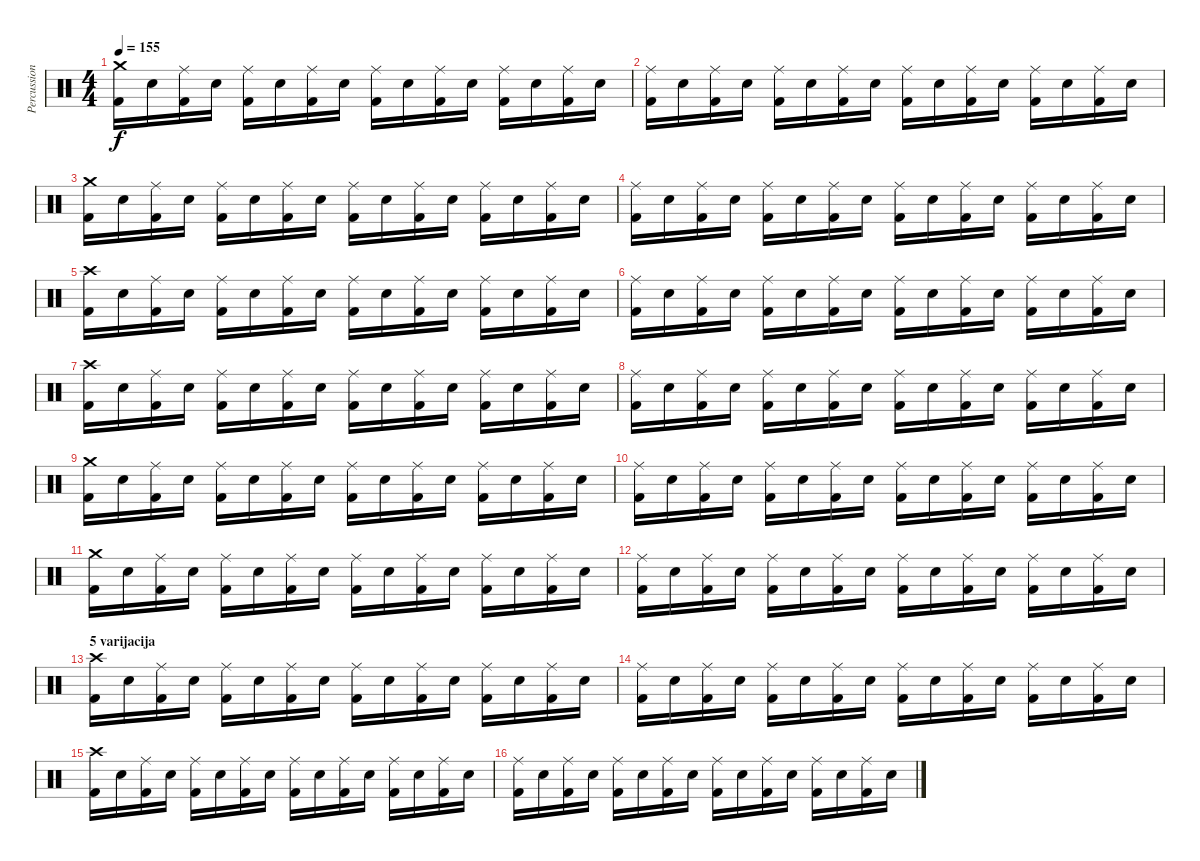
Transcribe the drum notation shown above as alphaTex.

\track ("Percussion" "Percussion") {instrument percussion}
\staff {score}
\articulation defaults
\ts (4 4)
\tempo 155
\clef neutral
\ks c
("Crash medium (hit)" "Kick (hit) 2").16{dy f} "Snare (hit) 2".16 ("Ride (middle)" "Kick (hit) 2").16 "Snare (hit) 2".16 ("Ride (middle)" "Kick (hit) 2").16 "Snare (hit) 2".16 ("Ride (middle)" "Kick (hit) 2").16 "Snare (hit) 2".16 ("Ride (middle)" "Kick (hit) 2").16 "Snare (hit) 2".16 ("Ride (middle)" "Kick (hit) 2").16 "Snare (hit) 2".16 ("Ride (middle)" "Kick (hit) 2").16 "Snare (hit) 2".16 ("Ride (middle)" "Kick (hit) 2").16 "Snare (hit) 2".16 |
("Ride (middle)" "Kick (hit) 2").16 "Snare (hit) 2".16 ("Ride (middle)" "Kick (hit) 2").16 "Snare (hit) 2".16 ("Ride (middle)" "Kick (hit) 2").16 "Snare (hit) 2".16 ("Ride (middle)" "Kick (hit) 2").16 "Snare (hit) 2".16 ("Ride (middle)" "Kick (hit) 2").16 "Snare (hit) 2".16 ("Ride (middle)" "Kick (hit) 2").16 "Snare (hit) 2".16 ("Ride (middle)" "Kick (hit) 2").16 "Snare (hit) 2".16 ("Ride (middle)" "Kick (hit) 2").16 "Snare (hit) 2".16 |
("Crash medium (hit)" "Kick (hit) 2").16 "Snare (hit) 2".16 ("Ride (middle)" "Kick (hit) 2").16 "Snare (hit) 2".16 ("Ride (middle)" "Kick (hit) 2").16 "Snare (hit) 2".16 ("Ride (middle)" "Kick (hit) 2").16 "Snare (hit) 2".16 ("Ride (middle)" "Kick (hit) 2").16 "Snare (hit) 2".16 ("Ride (middle)" "Kick (hit) 2").16 "Snare (hit) 2".16 ("Ride (middle)" "Kick (hit) 2").16 "Snare (hit) 2".16 ("Ride (middle)" "Kick (hit) 2").16 "Snare (hit) 2".16 |
("Ride (middle)" "Kick (hit) 2").16 "Snare (hit) 2".16 ("Ride (middle)" "Kick (hit) 2").16 "Snare (hit) 2".16 ("Ride (middle)" "Kick (hit) 2").16 "Snare (hit) 2".16 ("Ride (middle)" "Kick (hit) 2").16 "Snare (hit) 2".16 ("Ride (middle)" "Kick (hit) 2").16 "Snare (hit) 2".16 ("Ride (middle)" "Kick (hit) 2").16 "Snare (hit) 2".16 ("Ride (middle)" "Kick (hit) 2").16 "Snare (hit) 2".16 ("Ride (middle)" "Kick (hit) 2").16 "Snare (hit) 2".16 |
("Crash high (hit)" "Kick (hit) 2").16 "Snare (hit) 2".16 ("Ride (middle)" "Kick (hit) 2").16 "Snare (hit) 2".16 ("Ride (middle)" "Kick (hit) 2").16 "Snare (hit) 2".16 ("Ride (middle)" "Kick (hit) 2").16 "Snare (hit) 2".16 ("Ride (middle)" "Kick (hit) 2").16 "Snare (hit) 2".16 ("Ride (middle)" "Kick (hit) 2").16 "Snare (hit) 2".16 ("Ride (middle)" "Kick (hit) 2").16 "Snare (hit) 2".16 ("Ride (middle)" "Kick (hit) 2").16 "Snare (hit) 2".16 |
("Ride (middle)" "Kick (hit) 2").16 "Snare (hit) 2".16 ("Ride (middle)" "Kick (hit) 2").16 "Snare (hit) 2".16 ("Ride (middle)" "Kick (hit) 2").16 "Snare (hit) 2".16 ("Ride (middle)" "Kick (hit) 2").16 "Snare (hit) 2".16 ("Ride (middle)" "Kick (hit) 2").16 "Snare (hit) 2".16 ("Ride (middle)" "Kick (hit) 2").16 "Snare (hit) 2".16 ("Ride (middle)" "Kick (hit) 2").16 "Snare (hit) 2".16 ("Ride (middle)" "Kick (hit) 2").16 "Snare (hit) 2".16 |
("Crash high (hit)" "Kick (hit) 2").16 "Snare (hit) 2".16 ("Ride (middle)" "Kick (hit) 2").16 "Snare (hit) 2".16 ("Ride (middle)" "Kick (hit) 2").16 "Snare (hit) 2".16 ("Ride (middle)" "Kick (hit) 2").16 "Snare (hit) 2".16 ("Ride (middle)" "Kick (hit) 2").16 "Snare (hit) 2".16 ("Ride (middle)" "Kick (hit) 2").16 "Snare (hit) 2".16 ("Ride (middle)" "Kick (hit) 2").16 "Snare (hit) 2".16 ("Ride (middle)" "Kick (hit) 2").16 "Snare (hit) 2".16 |
("Ride (middle)" "Kick (hit) 2").16 "Snare (hit) 2".16 ("Ride (middle)" "Kick (hit) 2").16 "Snare (hit) 2".16 ("Ride (middle)" "Kick (hit) 2").16 "Snare (hit) 2".16 ("Ride (middle)" "Kick (hit) 2").16 "Snare (hit) 2".16 ("Ride (middle)" "Kick (hit) 2").16 "Snare (hit) 2".16 ("Ride (middle)" "Kick (hit) 2").16 "Snare (hit) 2".16 ("Ride (middle)" "Kick (hit) 2").16 "Snare (hit) 2".16 ("Ride (middle)" "Kick (hit) 2").16 "Snare (hit) 2".16 |
("Crash medium (hit)" "Kick (hit) 2").16 "Snare (hit) 2".16 ("Ride (middle)" "Kick (hit) 2").16 "Snare (hit) 2".16 ("Ride (middle)" "Kick (hit) 2").16 "Snare (hit) 2".16 ("Ride (middle)" "Kick (hit) 2").16 "Snare (hit) 2".16 ("Ride (middle)" "Kick (hit) 2").16 "Snare (hit) 2".16 ("Ride (middle)" "Kick (hit) 2").16 "Snare (hit) 2".16 ("Ride (middle)" "Kick (hit) 2").16 "Snare (hit) 2".16 ("Ride (middle)" "Kick (hit) 2").16 "Snare (hit) 2".16 |
("Ride (middle)" "Kick (hit) 2").16 "Snare (hit) 2".16 ("Ride (middle)" "Kick (hit) 2").16 "Snare (hit) 2".16 ("Ride (middle)" "Kick (hit) 2").16 "Snare (hit) 2".16 ("Ride (middle)" "Kick (hit) 2").16 "Snare (hit) 2".16 ("Ride (middle)" "Kick (hit) 2").16 "Snare (hit) 2".16 ("Ride (middle)" "Kick (hit) 2").16 "Snare (hit) 2".16 ("Ride (middle)" "Kick (hit) 2").16 "Snare (hit) 2".16 ("Ride (middle)" "Kick (hit) 2").16 "Snare (hit) 2".16 |
("Crash medium (hit)" "Kick (hit) 2").16 "Snare (hit) 2".16 ("Ride (middle)" "Kick (hit) 2").16 "Snare (hit) 2".16 ("Ride (middle)" "Kick (hit) 2").16 "Snare (hit) 2".16 ("Ride (middle)" "Kick (hit) 2").16 "Snare (hit) 2".16 ("Ride (middle)" "Kick (hit) 2").16 "Snare (hit) 2".16 ("Ride (middle)" "Kick (hit) 2").16 "Snare (hit) 2".16 ("Ride (middle)" "Kick (hit) 2").16 "Snare (hit) 2".16 ("Ride (middle)" "Kick (hit) 2").16 "Snare (hit) 2".16 |
("Ride (middle)" "Kick (hit) 2").16 "Snare (hit) 2".16 ("Ride (middle)" "Kick (hit) 2").16 "Snare (hit) 2".16 ("Ride (middle)" "Kick (hit) 2").16 "Snare (hit) 2".16 ("Ride (middle)" "Kick (hit) 2").16 "Snare (hit) 2".16 ("Ride (middle)" "Kick (hit) 2").16 "Snare (hit) 2".16 ("Ride (middle)" "Kick (hit) 2").16 "Snare (hit) 2".16 ("Ride (middle)" "Kick (hit) 2").16 "Snare (hit) 2".16 ("Ride (middle)" "Kick (hit) 2").16 "Snare (hit) 2".16 |
\section ("" "5 varijacija")
("Crash high (hit)" "Kick (hit) 2").16 "Snare (hit) 2".16 ("Ride (middle)" "Kick (hit) 2").16 "Snare (hit) 2".16 ("Ride (middle)" "Kick (hit) 2").16 "Snare (hit) 2".16 ("Ride (middle)" "Kick (hit) 2").16 "Snare (hit) 2".16 ("Ride (middle)" "Kick (hit) 2").16 "Snare (hit) 2".16 ("Ride (middle)" "Kick (hit) 2").16 "Snare (hit) 2".16 ("Ride (middle)" "Kick (hit) 2").16 "Snare (hit) 2".16 ("Ride (middle)" "Kick (hit) 2").16 "Snare (hit) 2".16 |
("Ride (middle)" "Kick (hit) 2").16 "Snare (hit) 2".16 ("Ride (middle)" "Kick (hit) 2").16 "Snare (hit) 2".16 ("Ride (middle)" "Kick (hit) 2").16 "Snare (hit) 2".16 ("Ride (middle)" "Kick (hit) 2").16 "Snare (hit) 2".16 ("Ride (middle)" "Kick (hit) 2").16 "Snare (hit) 2".16 ("Ride (middle)" "Kick (hit) 2").16 "Snare (hit) 2".16 ("Ride (middle)" "Kick (hit) 2").16 "Snare (hit) 2".16 ("Ride (middle)" "Kick (hit) 2").16 "Snare (hit) 2".16 |
("Crash high (hit)" "Kick (hit) 2").16 "Snare (hit) 2".16 ("Ride (middle)" "Kick (hit) 2").16 "Snare (hit) 2".16 ("Ride (middle)" "Kick (hit) 2").16 "Snare (hit) 2".16 ("Ride (middle)" "Kick (hit) 2").16 "Snare (hit) 2".16 ("Ride (middle)" "Kick (hit) 2").16 "Snare (hit) 2".16 ("Ride (middle)" "Kick (hit) 2").16 "Snare (hit) 2".16 ("Ride (middle)" "Kick (hit) 2").16 "Snare (hit) 2".16 ("Ride (middle)" "Kick (hit) 2").16 "Snare (hit) 2".16 |
("Ride (middle)" "Kick (hit) 2").16 "Snare (hit) 2".16 ("Ride (middle)" "Kick (hit) 2").16 "Snare (hit) 2".16 ("Ride (middle)" "Kick (hit) 2").16 "Snare (hit) 2".16 ("Ride (middle)" "Kick (hit) 2").16 "Snare (hit) 2".16 ("Ride (middle)" "Kick (hit) 2").16 "Snare (hit) 2".16 ("Ride (middle)" "Kick (hit) 2").16 "Snare (hit) 2".16 ("Ride (middle)" "Kick (hit) 2").16 "Snare (hit) 2".16 ("Ride (middle)" "Kick (hit) 2").16 "Snare (hit) 2".16
